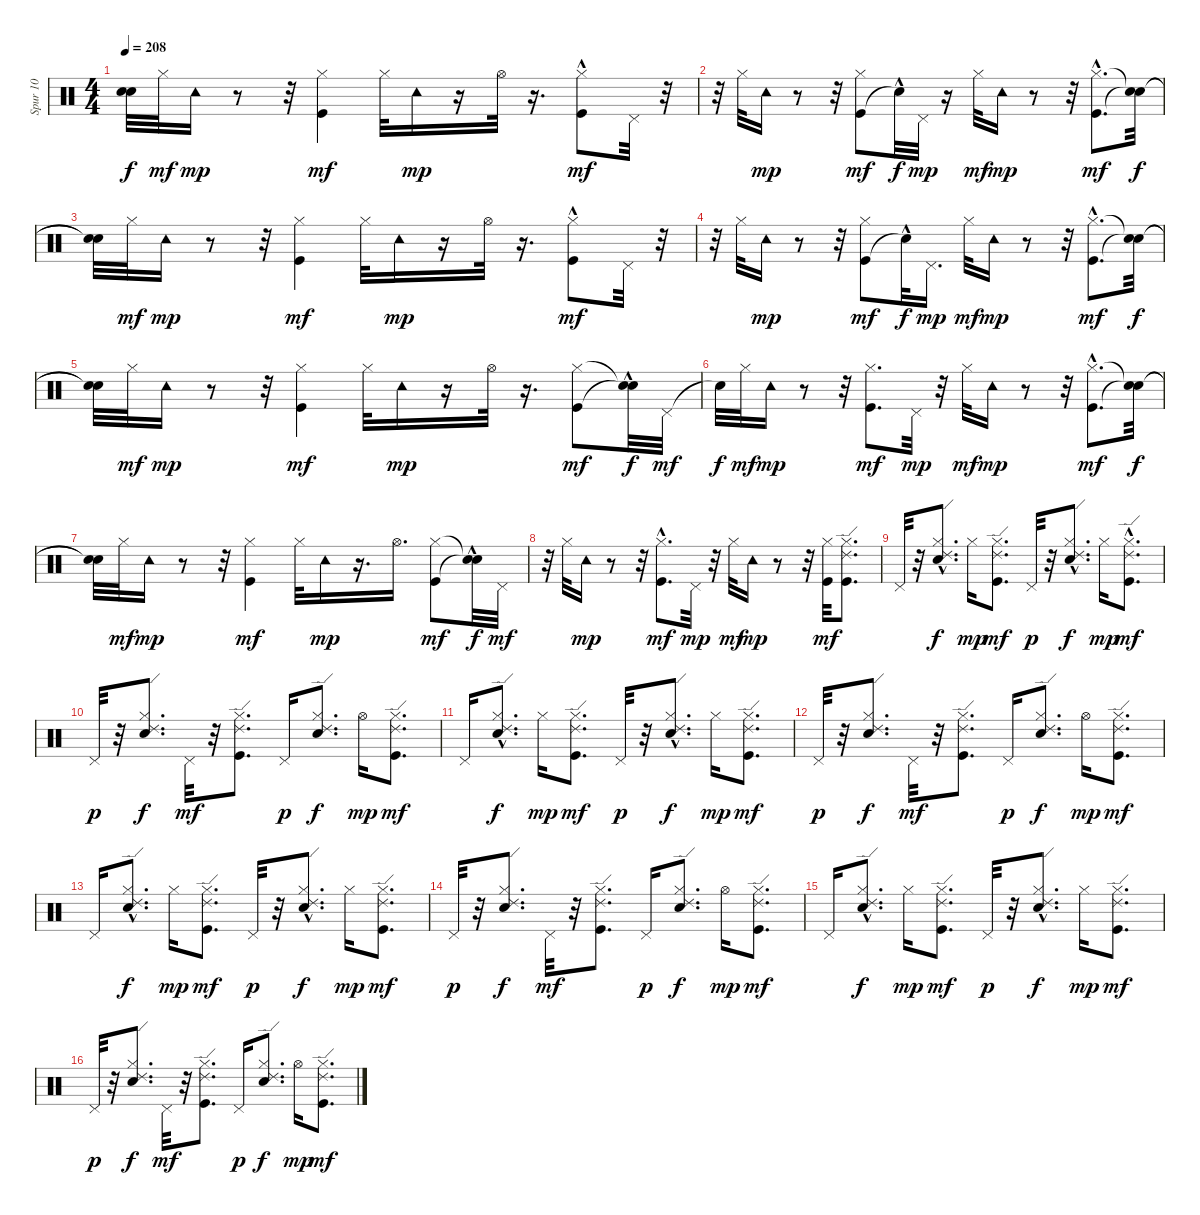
\track ("Spur 10" "Spur 10") {instrument percussion}
\staff {score}
\articulation defaults
\ts (4 4)
\tempo 208
\clef neutral
\ks c
("Snare (hit)"{t} "Snare (hit)"{t}).32{dy f} "Hi-Hat (closed)".32{dy mf} "Tambourine (hit)".16{dy mp} r.8 r.32 ("Kick (hit)" "Hi-Hat (closed)").4{dy mf} "Hi-Hat (closed)".32 "Tambourine (hit)".16{dy mp} r.16 "Hi-Hat (open)".32 r.16{d} ("Hi-Hat (closed)"{hac} "Kick (hit)").8{dy mf} "Pedal Hi-Hat (hit)".32 r.32 |
r.32 "Hi-Hat (closed)".32 "Tambourine (hit)".16{dy mp} r.8 r.32 ("Kick (hit)" "Hi-Hat (closed)").8{dy mf} "Snare (hit)"{hac t}.32{dy f} "Pedal Hi-Hat (hit)".32{dy mp} r.16 "Hi-Hat (closed)".32{dy mf} "Tambourine (hit)".16{dy mp} r.8 r.32 ("Kick (hit)"{hac} "Hi-Hat (closed)"{hac}).8{d dy mf} ("Snare (hit)"{t} "Snare (hit)"{t}).32{dy f} |
("Snare (hit)"{t} "Snare (hit)"{t}).32 "Hi-Hat (closed)".32{dy mf} "Tambourine (hit)".16{dy mp} r.8 r.32 ("Kick (hit)" "Hi-Hat (closed)").4{dy mf} "Hi-Hat (closed)".32 "Tambourine (hit)".16{dy mp} r.16 "Hi-Hat (open)".32 r.16{d} ("Hi-Hat (closed)"{hac} "Kick (hit)").8{dy mf} "Pedal Hi-Hat (hit)".32 r.32 |
r.32 "Hi-Hat (closed)".32 "Tambourine (hit)".16{dy mp} r.8 r.32 ("Kick (hit)" "Hi-Hat (closed)").8{dy mf} "Snare (hit)"{hac t}.32{dy f} "Pedal Hi-Hat (hit)".16{d dy mp} "Hi-Hat (closed)".32{dy mf} "Tambourine (hit)".16{dy mp} r.8 r.32 ("Kick (hit)"{hac} "Hi-Hat (closed)"{hac}).8{d dy mf} ("Snare (hit)"{t} "Snare (hit)"{t}).32{dy f} |
("Snare (hit)"{t} "Snare (hit)"{t}).32 "Hi-Hat (closed)".32{dy mf} "Tambourine (hit)".16{dy mp} r.8 r.32 ("Kick (hit)" "Hi-Hat (closed)").4{dy mf} "Hi-Hat (closed)".32 "Tambourine (hit)".16{dy mp} r.16 "Hi-Hat (open)".32 r.16{d} ("Hi-Hat (closed)" "Kick (hit)").8{dy mf} ("Snare (hit)"{hac t} "Snare (hit)"{t}).32{dy f} "Pedal Hi-Hat (hit)".32{dy mf} |
"Snare (hit)"{t}.32{dy f} "Hi-Hat (closed)".32{dy mf} "Tambourine (hit)".16{dy mp} r.8 r.32 ("Kick (hit)" "Hi-Hat (closed)").8{d dy mf} "Pedal Hi-Hat (hit)".32{dy mp} r.32 "Hi-Hat (closed)".32{dy mf} "Tambourine (hit)".16{dy mp} r.8 r.32 ("Kick (hit)"{hac} "Hi-Hat (closed)"{hac}).8{d dy mf} ("Snare (hit)"{t} "Snare (hit)"{t}).32{dy f} |
("Snare (hit)"{t} "Snare (hit)"{t}).32 "Hi-Hat (closed)".32{dy mf} "Tambourine (hit)".16{dy mp} r.8 r.32 ("Kick (hit)" "Hi-Hat (closed)").4{dy mf} "Hi-Hat (closed)".32 "Tambourine (hit)".16{dy mp} r.16{d} "Hi-Hat (open)".16{d} ("Hi-Hat (closed)" "Kick (hit)").8{dy mf} ("Snare (hit)"{hac t} "Snare (hit)"{t}).32{dy f} "Pedal Hi-Hat (hit)".32{dy mf} |
r.32 "Hi-Hat (closed)".32 "Tambourine (hit)".16{dy mp} r.8 r.32 ("Kick (hit)"{hac} "Hi-Hat (closed)"{hac}).8{d dy mf} "Pedal Hi-Hat (hit)".32{dy mp} r.32 "Hi-Hat (closed)".32{dy mf} "Tambourine (hit)".16{dy mp} r.8 r.32 ("Kick (hit)" "Hi-Hat (closed)").32{dy mf} ("Hi-Hat (closed)" "Kick (hit)" "Ride (edge) 2").8{d} |
"Pedal Hi-Hat (hit)".32 r.32 ("Snare (hit) 2" "Hi-Hat (closed)"{hac} "Ride (edge) 2").8{d dy f} "Hi-Hat (closed)".16{dy mp} ("Hi-Hat (closed)" "Kick (hit)" "Ride (edge) 2").8{d dy mf} "Pedal Hi-Hat (hit)".32{dy p} r.32 ("Snare (hit) 2"{hac} "Hi-Hat (closed)"{hac} "Ride (edge) 2").8{d dy f} "Hi-Hat (closed)".16{dy mp} ("Hi-Hat (closed)"{hac} "Kick (hit)" "Ride (edge) 2"{hac}).8{d dy mf} |
"Pedal Hi-Hat (hit)".32{dy p} r.32 ("Snare (hit) 2" "Hi-Hat (closed)" "Ride (edge) 2").8{d dy f} "Pedal Hi-Hat (hit)".32{dy mf} r.32 ("Hi-Hat (closed)" "Kick (hit)" "Ride (edge) 2").8{d} "Pedal Hi-Hat (hit)".16{dy p} ("Snare (hit) 2" "Hi-Hat (closed)" "Ride (edge) 2").8{d dy f} "Hi-Hat (open)".16{dy mp} ("Hi-Hat (closed)" "Kick (hit)" "Ride (edge) 2").8{d dy mf} |
"Pedal Hi-Hat (hit)".16 ("Snare (hit) 2" "Hi-Hat (closed)"{hac} "Ride (edge) 2").8{d dy f} "Hi-Hat (closed)".16{dy mp} ("Hi-Hat (closed)" "Kick (hit)" "Ride (edge) 2").8{d dy mf} "Pedal Hi-Hat (hit)".32{dy p} r.32 ("Snare (hit) 2" "Hi-Hat (closed)"{hac} "Ride (edge) 2").8{d dy f} "Hi-Hat (closed)".16{dy mp} ("Hi-Hat (closed)" "Kick (hit)" "Ride (edge) 2").8{d dy mf} |
"Pedal Hi-Hat (hit)".32{dy p} r.32 ("Snare (hit) 2" "Hi-Hat (closed)" "Ride (edge) 2").8{d dy f} "Pedal Hi-Hat (hit)".32{dy mf} r.32 ("Hi-Hat (closed)" "Kick (hit)" "Ride (edge) 2").8{d} "Pedal Hi-Hat (hit)".16{dy p} ("Snare (hit) 2" "Hi-Hat (closed)" "Ride (edge) 2").8{d dy f} "Hi-Hat (open)".16{dy mp} ("Hi-Hat (closed)" "Kick (hit)" "Ride (edge) 2").8{d dy mf} |
"Pedal Hi-Hat (hit)".16 ("Snare (hit) 2" "Hi-Hat (closed)"{hac} "Ride (edge) 2").8{d dy f} "Hi-Hat (closed)".16{dy mp} ("Hi-Hat (closed)" "Kick (hit)" "Ride (edge) 2").8{d dy mf} "Pedal Hi-Hat (hit)".32{dy p} r.32 ("Snare (hit) 2" "Hi-Hat (closed)"{hac} "Ride (edge) 2").8{d dy f} "Hi-Hat (closed)".16{dy mp} ("Hi-Hat (closed)" "Kick (hit)" "Ride (edge) 2").8{d dy mf} |
"Pedal Hi-Hat (hit)".32{dy p} r.32 ("Snare (hit) 2" "Hi-Hat (closed)" "Ride (edge) 2").8{d dy f} "Pedal Hi-Hat (hit)".32{dy mf} r.32 ("Hi-Hat (closed)" "Kick (hit)" "Ride (edge) 2").8{d} "Pedal Hi-Hat (hit)".16{dy p} ("Snare (hit) 2" "Hi-Hat (closed)" "Ride (edge) 2").8{d dy f} "Hi-Hat (open)".16{dy mp} ("Hi-Hat (closed)" "Kick (hit)" "Ride (edge) 2").8{d dy mf} |
"Pedal Hi-Hat (hit)".16 ("Snare (hit) 2" "Hi-Hat (closed)"{hac} "Ride (edge) 2").8{d dy f} "Hi-Hat (closed)".16{dy mp} ("Hi-Hat (closed)" "Kick (hit)" "Ride (edge) 2").8{d dy mf} "Pedal Hi-Hat (hit)".32{dy p} r.32 ("Snare (hit) 2" "Hi-Hat (closed)"{hac} "Ride (edge) 2").8{d dy f} "Hi-Hat (closed)".16{dy mp} ("Hi-Hat (closed)" "Kick (hit)" "Ride (edge) 2").8{d dy mf} |
"Pedal Hi-Hat (hit)".32{dy p} r.32 ("Snare (hit) 2" "Hi-Hat (closed)" "Ride (edge) 2").8{d dy f} "Pedal Hi-Hat (hit)".32{dy mf} r.32 ("Hi-Hat (closed)" "Kick (hit)" "Ride (edge) 2").8{d} "Pedal Hi-Hat (hit)".16{dy p} ("Snare (hit) 2" "Hi-Hat (closed)" "Ride (edge) 2").8{d dy f} "Hi-Hat (open)".16{dy mp} ("Hi-Hat (closed)" "Kick (hit)" "Ride (edge) 2").8{d dy mf}
